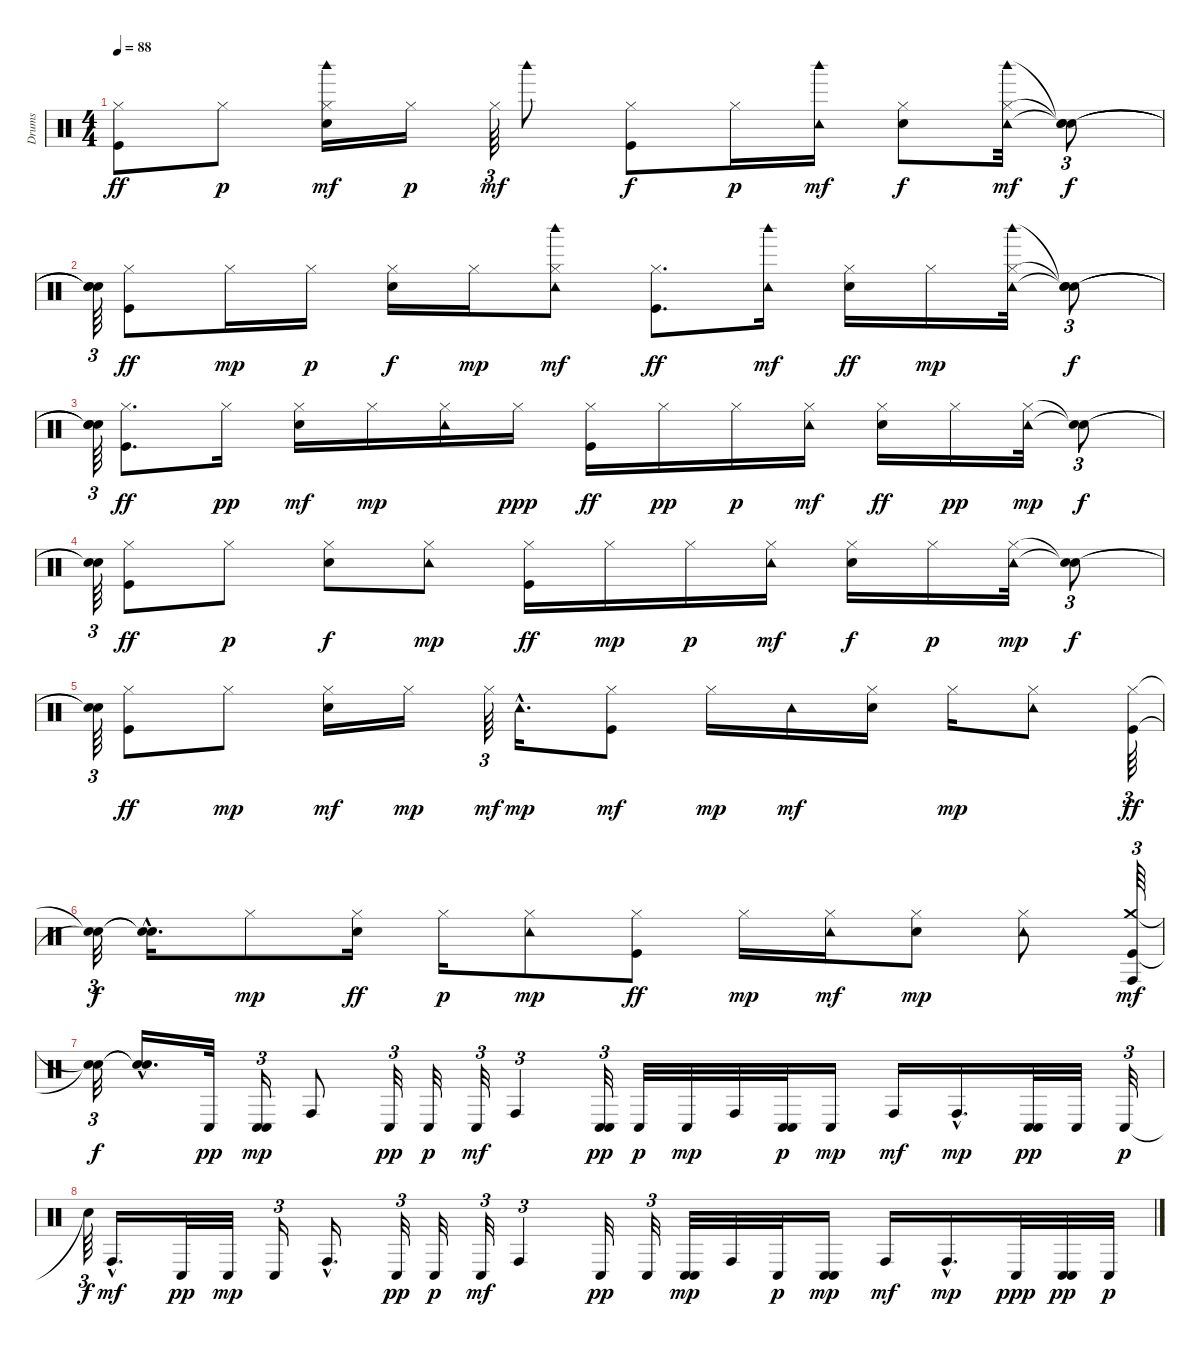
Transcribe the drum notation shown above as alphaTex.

\track ("Drums" "Drums") {instrument percussion}
\staff {score}
\articulation defaults
\ts (4 4)
\tempo 88
\clef neutral
\ks c
("Kick (hit)" "Hi-Hat (closed)").8{dy ff} "Hi-Hat (closed)".8{dy p} ("Electric Snare (hit)" "Hi-Hat (closed)" "Woodblock high (hit)").16{dy mf} "Hi-Hat (closed)".16{dy p} "Hi-Hat (closed)".64{tu (3 2) dy mf} "Woodblock high (hit)".8 ("Kick (hit)" "Hi-Hat (closed)").8{dy f} "Hi-Hat (closed)".16{dy p} ("Tambourine (hit)" "Woodblock high (hit)").16{dy mf} ("Electric Snare (hit)" "Hi-Hat (closed)").8{dy f} ("Hi-Hat (closed)" "Tambourine (hit)" "Woodblock high (hit)").32{dy mf} ("Snare (hit)"{t} "Snare (hit)"{t} "Snare (hit)"{t}).8{tu (3 2) dy f} |
("Snare (hit)"{t} "Snare (hit)"{t} "Snare (hit)"{t}).64{tu (3 2)} ("Kick (hit)" "Hi-Hat (closed)").8{dy ff} "Hi-Hat (closed)".16{dy mp} "Hi-Hat (closed)".16{dy p} ("Electric Snare (hit)" "Hi-Hat (closed)").16{dy f} "Hi-Hat (closed)".16{dy mp} ("Hi-Hat (closed)" "Tambourine (hit)" "Woodblock high (hit)").8{dy mf} ("Kick (hit)" "Hi-Hat (closed)").8{d dy ff} ("Woodblock high (hit)" "Tambourine (hit)").16{dy mf} ("Electric Snare (hit)" "Hi-Hat (closed)").16{dy ff} "Hi-Hat (closed)".16{dy mp} ("Hi-Hat (closed)" "Woodblock high (hit)" "Tambourine (hit)").32 ("Snare (hit)"{t} "Snare (hit)"{t} "Snare (hit)"{t}).8{tu (3 2) dy f} |
("Snare (hit)"{t} "Snare (hit)"{t} "Snare (hit)"{t}).64{tu (3 2)} ("Kick (hit)" "Hi-Hat (closed)").8{d dy ff} "Hi-Hat (closed)".16{dy pp} ("Electric Snare (hit)" "Hi-Hat (closed)").16{dy mf} "Hi-Hat (closed)".16{dy mp} ("Hi-Hat (closed)" "Tambourine (hit)").16 "Hi-Hat (closed)".16{dy ppp} ("Kick (hit)" "Hi-Hat (closed)").16{dy ff} "Hi-Hat (closed)".16{dy pp} "Hi-Hat (closed)".16{dy p} ("Hi-Hat (closed)" "Tambourine (hit)").16{dy mf} ("Electric Snare (hit)" "Hi-Hat (closed)").16{dy ff} "Hi-Hat (closed)".16{dy pp} ("Hi-Hat (closed)" "Tambourine (hit)").32{dy mp} ("Snare (hit)"{t} "Snare (hit)"{t}).8{tu (3 2) dy f} |
("Snare (hit)"{t} "Snare (hit)"{t}).64{tu (3 2)} ("Kick (hit)" "Hi-Hat (closed)").8{dy ff} "Hi-Hat (closed)".8{dy p} ("Electric Snare (hit)" "Hi-Hat (closed)").8{dy f} ("Hi-Hat (closed)" "Tambourine (hit)").8{dy mp} ("Kick (hit)" "Hi-Hat (closed)").16{dy ff} "Hi-Hat (closed)".16{dy mp} "Hi-Hat (closed)".16{dy p} ("Hi-Hat (closed)" "Tambourine (hit)").16{dy mf} ("Electric Snare (hit)" "Hi-Hat (closed)").16{dy f} "Hi-Hat (closed)".16{dy p} ("Hi-Hat (closed)" "Tambourine (hit)").32{dy mp} ("Snare (hit)"{t} "Snare (hit)"{t}).8{tu (3 2) dy f} |
("Snare (hit)"{t} "Snare (hit)"{t}).64{tu (3 2)} ("Kick (hit)" "Hi-Hat (closed)").8{dy ff} "Hi-Hat (closed)".8{dy mp} ("Electric Snare (hit)" "Hi-Hat (closed)").16{dy mf} "Hi-Hat (closed)".16{dy mp} "Hi-Hat (closed)".64{tu (3 2) dy mf} "Tambourine (hit)"{hac}.16{d dy mp} ("Kick (hit)" "Hi-Hat (closed)").8{dy mf} "Hi-Hat (closed)".16{dy mp} "Tambourine (hit)".16{dy mf} ("Electric Snare (hit)" "Hi-Hat (closed)").16 "Hi-Hat (closed)".16{dy mp} ("Hi-Hat (closed)" "Tambourine (hit)").8 ("Kick (hit)" "Hi-Hat (closed)").64{tu (3 2) dy ff} |
("Snare (hit)"{t} "Snare (hit)"{t}).32{tu (3 2) dy f} ("Snare (hit)"{hac t} "Snare (hit)"{hac t}).16{d} "Hi-Hat (closed)".8{dy mp} ("Electric Snare (hit)" "Hi-Hat (closed)").16{dy ff} "Hi-Hat (closed)".16{dy p} ("Hi-Hat (closed)" "Tambourine (hit)").8{dy mp} ("Kick (hit)" "Hi-Hat (closed)").8{dy ff} "Hi-Hat (closed)".16{dy mp} ("Hi-Hat (closed)" "Tambourine (hit)").16{dy mf} ("Electric Snare (hit)" "Hi-Hat (closed)").8{dy mp} ("Hi-Hat (closed)" "Tambourine (hit)").8 ("Crash medium (hit)" "Kick (hit)" "Conga high (hit)").64{tu (3 2) dy mf} |
("Snare (hit)"{t} "Snare (hit)"{t}).32{tu (3 2) dy f} ("Snare (hit)"{hac t} "Snare (hit)"{hac t}).16{d} "Conga low (hit)".32{dy pp} ("Conga low (hit)" "Conga low (hit)").16{tu (3 2) dy mp} "Conga high (hit)".8 "Conga low (hit)".32{tu (3 2) dy pp} "Conga low (hit)".32{dy p} "Conga low (hit)".32{tu (3 2) dy mf} "Conga high (hit)".4{tu (3 2)} ("Conga low (hit)" "Conga low (hit)").32{tu (3 2) dy pp} "Conga low (hit)".32{dy p} "Conga low (hit)".32{dy mp} "Conga high (hit)".32 ("Conga low (hit)" "Conga low (hit)").32{dy p} "Conga low (hit)".16{dy mp} "Conga high (hit)".16{dy mf} "Conga high (hit)"{hac}.16{d dy mp} ("Conga low (hit)" "Conga low (hit)").32{dy pp} "Conga low (hit)".32 "Conga low (hit)".32{tu (3 2) dy p} |
"Snare (hit)"{t}.64{tu (3 2) dy f} "Conga high (hit)"{hac}.16{d dy mf} "Conga low (hit)".32{dy pp} "Conga low (hit)".32{dy mp} "Conga low (hit)".16{tu (3 2)} "Conga high (hit)"{hac}.16{d} "Conga low (hit)".32{tu (3 2) dy pp} "Conga low (hit)".32{dy p} "Conga low (hit)".32{tu (3 2) dy mf} "Conga high (hit)".4{tu (3 2)} "Conga low (hit)".32{dy pp} "Conga low (hit)".32{tu (3 2)} ("Conga low (hit)" "Conga low (hit)").32{dy mp} "Conga high (hit)".32 "Conga low (hit)".32{dy p} ("Conga low (hit)" "Conga low (hit)").16{dy mp} "Conga high (hit)".16{dy mf} "Conga high (hit)"{hac}.16{d dy mp} "Conga low (hit)".32{dy ppp} ("Conga low (hit)" "Conga low (hit)").32{dy pp} "Conga low (hit)".32{dy p}
